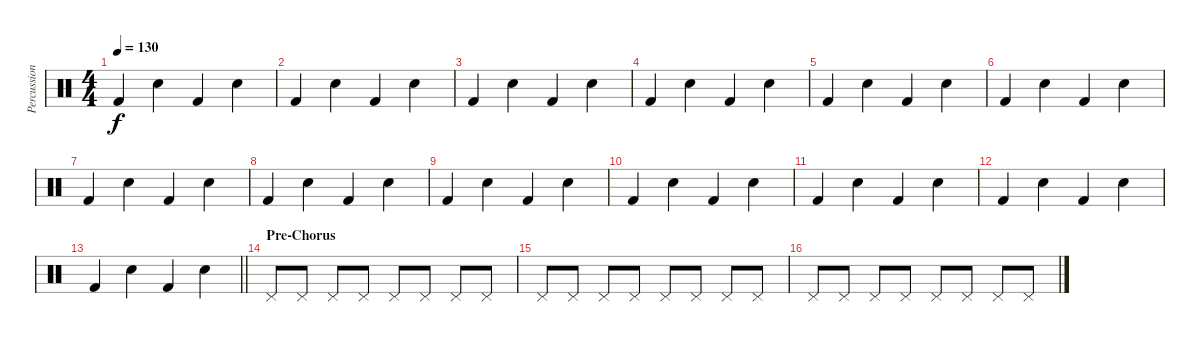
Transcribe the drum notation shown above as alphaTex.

\track ("Percussion" "Percussion") {instrument percussion}
\staff {score}
\articulation defaults
\ts (4 4)
\tempo 130
\clef neutral
\ks c "Kick (hit) 2".4{dy f} "Electric Snare (hit)".4 "Kick (hit) 2".4 "Electric Snare (hit)".4
|
"Kick (hit) 2".4 "Electric Snare (hit)".4 "Kick (hit) 2".4 "Electric Snare (hit)".4 |
"Kick (hit) 2".4 "Electric Snare (hit)".4 "Kick (hit) 2".4 "Electric Snare (hit)".4 |
"Kick (hit) 2".4 "Electric Snare (hit)".4 "Kick (hit) 2".4 "Electric Snare (hit)".4 |
"Kick (hit) 2".4 "Electric Snare (hit)".4 "Kick (hit) 2".4 "Electric Snare (hit)".4 |
"Kick (hit) 2".4 "Electric Snare (hit)".4 "Kick (hit) 2".4 "Electric Snare (hit)".4 |
"Kick (hit) 2".4 "Electric Snare (hit)".4 "Kick (hit) 2".4 "Electric Snare (hit)".4 |
"Kick (hit) 2".4 "Electric Snare (hit)".4 "Kick (hit) 2".4 "Electric Snare (hit)".4 |
"Kick (hit) 2".4 "Electric Snare (hit)".4 "Kick (hit) 2".4 "Electric Snare (hit)".4 |
"Kick (hit) 2".4 "Electric Snare (hit)".4 "Kick (hit) 2".4 "Electric Snare (hit)".4 |
"Kick (hit) 2".4 "Electric Snare (hit)".4 "Kick (hit) 2".4 "Electric Snare (hit)".4 |
"Kick (hit) 2".4 "Electric Snare (hit)".4 "Kick (hit) 2".4 "Electric Snare (hit)".4 |
\barLineRight lightlight "Kick (hit) 2".4 "Electric Snare (hit)".4 "Kick (hit) 2".4 "Electric Snare (hit)".4
|
\section ("" "Pre-Chorus")
"Pedal Hi-Hat (hit)".8 "Pedal Hi-Hat (hit)".8 "Pedal Hi-Hat (hit)".8 "Pedal Hi-Hat (hit)".8 "Pedal Hi-Hat (hit)".8 "Pedal Hi-Hat (hit)".8 "Pedal Hi-Hat (hit)".8 "Pedal Hi-Hat (hit)".8 |
"Pedal Hi-Hat (hit)".8 "Pedal Hi-Hat (hit)".8 "Pedal Hi-Hat (hit)".8 "Pedal Hi-Hat (hit)".8 "Pedal Hi-Hat (hit)".8 "Pedal Hi-Hat (hit)".8 "Pedal Hi-Hat (hit)".8 "Pedal Hi-Hat (hit)".8 |
"Pedal Hi-Hat (hit)".8 "Pedal Hi-Hat (hit)".8 "Pedal Hi-Hat (hit)".8 "Pedal Hi-Hat (hit)".8 "Pedal Hi-Hat (hit)".8 "Pedal Hi-Hat (hit)".8 "Pedal Hi-Hat (hit)".8 "Pedal Hi-Hat (hit)".8
